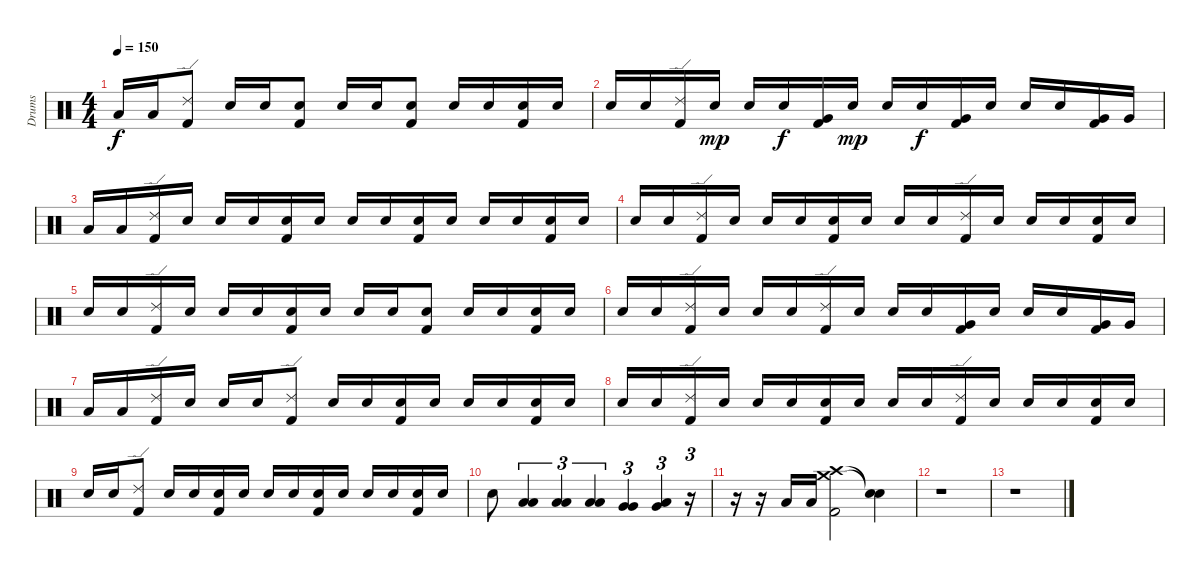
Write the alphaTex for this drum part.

\track ("Drums" "Drums") {instrument percussion}
\staff {score}
\articulation defaults
\ts (4 4)
\tempo 150
\clef neutral
\ks c "Low Floor Tom (hit)".16{dy f} "Low Floor Tom (hit)".16
("Ride (edge) 2" "Kick (hit) 2").8 "Snare (hit) 2".16 "Snare (hit) 2".16 ("Snare (hit) 2" "Kick (hit) 2").8 "Snare (hit) 2".16 "Snare (hit) 2".16 ("Snare (hit) 2" "Kick (hit) 2").8 "Snare (hit) 2".16 "Snare (hit) 2".16 ("Snare (hit) 2" "Kick (hit) 2").16 "Snare (hit) 2".16 |
"Snare (hit) 2".16 "Snare (hit) 2".16 ("Ride (edge) 2" "Kick (hit) 2").16 "Snare (hit) 2".16{dy mp} "Snare (hit) 2".16 "Snare (hit) 2".16{dy f} ("Very Low Tom (hit)" "Kick (hit) 2").16 "Snare (hit) 2".16{dy mp} "Snare (hit) 2".16 "Snare (hit) 2".16{dy f} ("Very Low Tom (hit)" "Kick (hit) 2").16 "Snare (hit) 2".16 "Snare (hit) 2".16 "Snare (hit) 2".16 ("Very Low Tom (hit)" "Kick (hit) 2").16 "Very Low Tom (hit)".16 |
"Low Floor Tom (hit)".16 "Low Floor Tom (hit)".16 ("Ride (edge) 2" "Kick (hit) 2").16 "Snare (hit) 2".16 "Snare (hit) 2".16 "Snare (hit) 2".16 ("Snare (hit) 2" "Kick (hit) 2").16 "Snare (hit) 2".16 "Snare (hit) 2".16 "Snare (hit) 2".16 ("Snare (hit) 2" "Kick (hit) 2").16 "Snare (hit) 2".16 "Snare (hit) 2".16 "Snare (hit) 2".16 ("Snare (hit) 2" "Kick (hit) 2").16 "Snare (hit) 2".16 |
"Snare (hit) 2".16 "Snare (hit) 2".16 ("Ride (edge) 2" "Kick (hit) 2").16 "Snare (hit) 2".16 "Snare (hit) 2".16 "Snare (hit) 2".16 ("Snare (hit) 2" "Kick (hit) 2").16 "Snare (hit) 2".16 "Snare (hit) 2".16 "Snare (hit) 2".16 ("Ride (edge) 2" "Kick (hit) 2").16 "Snare (hit) 2".16 "Snare (hit) 2".16 "Snare (hit) 2".16 ("Snare (hit) 2" "Kick (hit) 2").16 "Snare (hit) 2".16 |
"Snare (hit) 2".16 "Snare (hit) 2".16 ("Ride (edge) 2" "Kick (hit) 2").16 "Snare (hit) 2".16 "Snare (hit) 2".16 "Snare (hit) 2".16 ("Snare (hit) 2" "Kick (hit) 2").16 "Snare (hit) 2".16 "Snare (hit) 2".16 "Snare (hit) 2".16 ("Snare (hit) 2" "Kick (hit) 2").8 "Snare (hit) 2".16 "Snare (hit) 2".16 ("Snare (hit) 2" "Kick (hit) 2").16 "Snare (hit) 2".16 |
"Snare (hit) 2".16 "Snare (hit) 2".16 ("Ride (edge) 2" "Kick (hit) 2").16 "Snare (hit) 2".16 "Snare (hit) 2".16 "Snare (hit) 2".16 ("Ride (edge) 2" "Kick (hit) 2").16 "Snare (hit) 2".16 "Snare (hit) 2".16 "Snare (hit) 2".16 ("Very Low Tom (hit)" "Kick (hit) 2").16 "Snare (hit) 2".16 "Snare (hit) 2".16 "Snare (hit) 2".16 ("Very Low Tom (hit)" "Kick (hit) 2").16 "Very Low Tom (hit)".16 |
"Low Floor Tom (hit)".16 "Low Floor Tom (hit)".16 ("Ride (edge) 2" "Kick (hit) 2").16 "Snare (hit) 2".16 "Snare (hit) 2".16 "Snare (hit) 2".16 ("Ride (edge) 2" "Kick (hit) 2").8 "Snare (hit) 2".16 "Snare (hit) 2".16 ("Snare (hit) 2" "Kick (hit) 2").16 "Snare (hit) 2".16 "Snare (hit) 2".16 "Snare (hit) 2".16 ("Snare (hit) 2" "Kick (hit) 2").16 "Snare (hit) 2".16 |
"Snare (hit) 2".16 "Snare (hit) 2".16 ("Ride (edge) 2" "Kick (hit) 2").16 "Snare (hit) 2".16 "Snare (hit) 2".16 "Snare (hit) 2".16 ("Snare (hit) 2" "Kick (hit) 2").16 "Snare (hit) 2".16 "Snare (hit) 2".16 "Snare (hit) 2".16 ("Ride (edge) 2" "Kick (hit) 2").16 "Snare (hit) 2".16 "Snare (hit) 2".16 "Snare (hit) 2".16 ("Snare (hit) 2" "Kick (hit) 2").16 "Snare (hit) 2".16 |
"Snare (hit) 2".16 "Snare (hit) 2".16 ("Ride (edge) 2" "Kick (hit) 2").8 "Snare (hit) 2".16 "Snare (hit) 2".16 ("Snare (hit) 2" "Kick (hit) 2").16 "Snare (hit) 2".16 "Snare (hit) 2".16 "Snare (hit) 2".16 ("Snare (hit) 2" "Kick (hit) 2").16 "Snare (hit) 2".16 "Snare (hit) 2".16 "Snare (hit) 2".16 ("Snare (hit) 2" "Kick (hit) 2").16 "Snare (hit) 2".16 |
"Snare (hit) 2".8 ("Low Tom (hit)" "Low Tom (hit)").4{tu (3 2)} ("Low Tom (hit)" "Low Tom (hit)").4{tu (3 2)} ("Low Tom (hit)" "Low Tom (hit)").4{tu (3 2)} ("Very Low Tom (hit)" "Very Low Tom (hit)").4{tu (3 2)} ("Very Low Tom (hit)" "Low Floor Tom (hit)").4{tu (3 2)} r.16{tu (3 2)} |
r.16 r.16 "Low Floor Tom (hit)".16 "Low Floor Tom (hit)".16 ("Crash high (hit)" "Crash medium (hit)" "Kick (hit) 2").2 ("Snare (hit)"{t} "Snare (hit)"{t}).4 |
r.1 |
r.1
